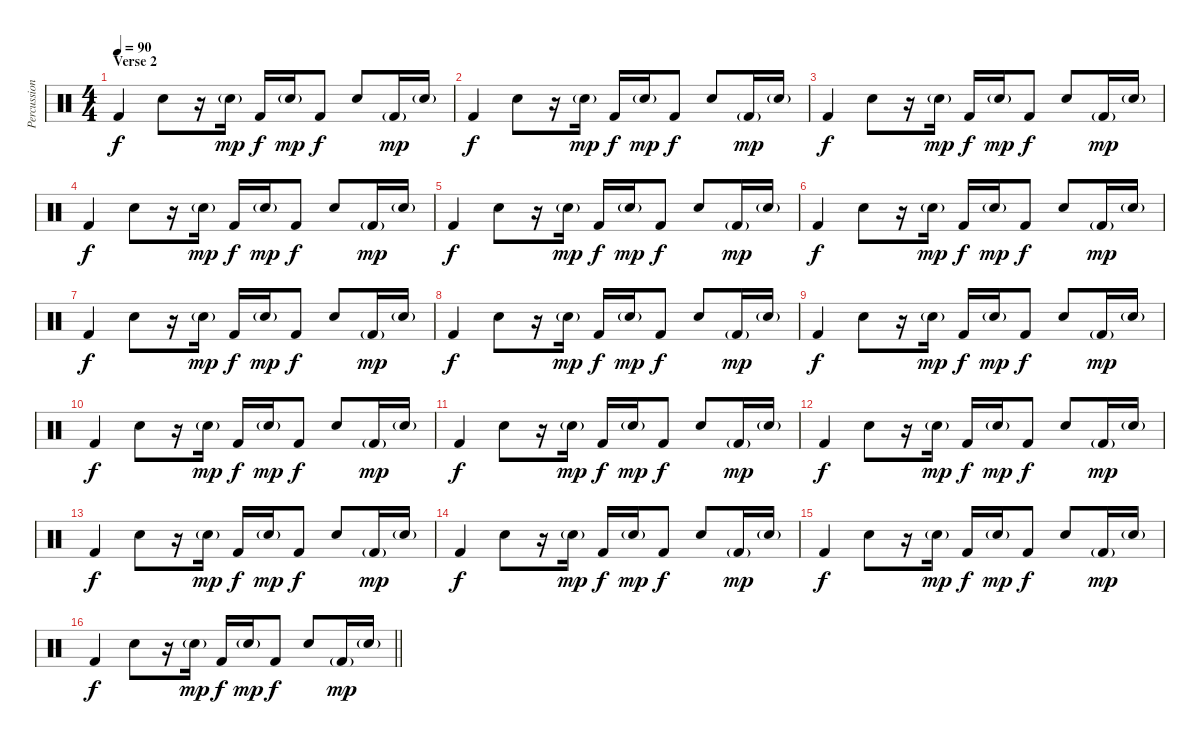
\track ("Percussion" "Percussion") {instrument percussion}
\staff {score}
\articulation defaults
\ts (4 4)
\section ("" "Verse 2")
\tempo 90
\clef neutral
\ks c "Kick (hit) 2".4{dy f} "Snare (hit) 2".8
r.16 "Snare (hit) 2"{g}.16{dy mp} "Kick (hit) 2".16{dy f} "Snare (hit) 2"{g}.16{dy mp} "Kick (hit) 2".8{dy f} "Snare (hit) 2".8 "Kick (hit) 2"{g}.16{dy mp} "Snare (hit) 2"{g}.16 |
"Kick (hit) 2".4{dy f} "Snare (hit) 2".8 r.16 "Snare (hit) 2"{g}.16{dy mp} "Kick (hit) 2".16{dy f} "Snare (hit) 2"{g}.16{dy mp} "Kick (hit) 2".8{dy f} "Snare (hit) 2".8 "Kick (hit) 2"{g}.16{dy mp} "Snare (hit) 2"{g}.16 |
"Kick (hit) 2".4{dy f} "Snare (hit) 2".8 r.16 "Snare (hit) 2"{g}.16{dy mp} "Kick (hit) 2".16{dy f} "Snare (hit) 2"{g}.16{dy mp} "Kick (hit) 2".8{dy f} "Snare (hit) 2".8 "Kick (hit) 2"{g}.16{dy mp} "Snare (hit) 2"{g}.16 |
"Kick (hit) 2".4{dy f} "Snare (hit) 2".8 r.16 "Snare (hit) 2"{g}.16{dy mp} "Kick (hit) 2".16{dy f} "Snare (hit) 2"{g}.16{dy mp} "Kick (hit) 2".8{dy f} "Snare (hit) 2".8 "Kick (hit) 2"{g}.16{dy mp} "Snare (hit) 2"{g}.16 |
"Kick (hit) 2".4{dy f} "Snare (hit) 2".8 r.16 "Snare (hit) 2"{g}.16{dy mp} "Kick (hit) 2".16{dy f} "Snare (hit) 2"{g}.16{dy mp} "Kick (hit) 2".8{dy f} "Snare (hit) 2".8 "Kick (hit) 2"{g}.16{dy mp} "Snare (hit) 2"{g}.16 |
"Kick (hit) 2".4{dy f} "Snare (hit) 2".8 r.16 "Snare (hit) 2"{g}.16{dy mp} "Kick (hit) 2".16{dy f} "Snare (hit) 2"{g}.16{dy mp} "Kick (hit) 2".8{dy f} "Snare (hit) 2".8 "Kick (hit) 2"{g}.16{dy mp} "Snare (hit) 2"{g}.16 |
"Kick (hit) 2".4{dy f} "Snare (hit) 2".8 r.16 "Snare (hit) 2"{g}.16{dy mp} "Kick (hit) 2".16{dy f} "Snare (hit) 2"{g}.16{dy mp} "Kick (hit) 2".8{dy f} "Snare (hit) 2".8 "Kick (hit) 2"{g}.16{dy mp} "Snare (hit) 2"{g}.16 |
"Kick (hit) 2".4{dy f} "Snare (hit) 2".8 r.16 "Snare (hit) 2"{g}.16{dy mp} "Kick (hit) 2".16{dy f} "Snare (hit) 2"{g}.16{dy mp} "Kick (hit) 2".8{dy f} "Snare (hit) 2".8 "Kick (hit) 2"{g}.16{dy mp} "Snare (hit) 2"{g}.16 |
"Kick (hit) 2".4{dy f} "Snare (hit) 2".8 r.16 "Snare (hit) 2"{g}.16{dy mp} "Kick (hit) 2".16{dy f} "Snare (hit) 2"{g}.16{dy mp} "Kick (hit) 2".8{dy f} "Snare (hit) 2".8 "Kick (hit) 2"{g}.16{dy mp} "Snare (hit) 2"{g}.16 |
"Kick (hit) 2".4{dy f} "Snare (hit) 2".8 r.16 "Snare (hit) 2"{g}.16{dy mp} "Kick (hit) 2".16{dy f} "Snare (hit) 2"{g}.16{dy mp} "Kick (hit) 2".8{dy f} "Snare (hit) 2".8 "Kick (hit) 2"{g}.16{dy mp} "Snare (hit) 2"{g}.16 |
"Kick (hit) 2".4{dy f} "Snare (hit) 2".8 r.16 "Snare (hit) 2"{g}.16{dy mp} "Kick (hit) 2".16{dy f} "Snare (hit) 2"{g}.16{dy mp} "Kick (hit) 2".8{dy f} "Snare (hit) 2".8 "Kick (hit) 2"{g}.16{dy mp} "Snare (hit) 2"{g}.16 |
"Kick (hit) 2".4{dy f} "Snare (hit) 2".8 r.16 "Snare (hit) 2"{g}.16{dy mp} "Kick (hit) 2".16{dy f} "Snare (hit) 2"{g}.16{dy mp} "Kick (hit) 2".8{dy f} "Snare (hit) 2".8 "Kick (hit) 2"{g}.16{dy mp} "Snare (hit) 2"{g}.16 |
"Kick (hit) 2".4{dy f} "Snare (hit) 2".8 r.16 "Snare (hit) 2"{g}.16{dy mp} "Kick (hit) 2".16{dy f} "Snare (hit) 2"{g}.16{dy mp} "Kick (hit) 2".8{dy f} "Snare (hit) 2".8 "Kick (hit) 2"{g}.16{dy mp} "Snare (hit) 2"{g}.16 |
"Kick (hit) 2".4{dy f} "Snare (hit) 2".8 r.16 "Snare (hit) 2"{g}.16{dy mp} "Kick (hit) 2".16{dy f} "Snare (hit) 2"{g}.16{dy mp} "Kick (hit) 2".8{dy f} "Snare (hit) 2".8 "Kick (hit) 2"{g}.16{dy mp} "Snare (hit) 2"{g}.16 |
"Kick (hit) 2".4{dy f} "Snare (hit) 2".8 r.16 "Snare (hit) 2"{g}.16{dy mp} "Kick (hit) 2".16{dy f} "Snare (hit) 2"{g}.16{dy mp} "Kick (hit) 2".8{dy f} "Snare (hit) 2".8 "Kick (hit) 2"{g}.16{dy mp} "Snare (hit) 2"{g}.16 |
\barLineRight lightlight "Kick (hit) 2".4{dy f} "Snare (hit) 2".8
r.16 "Snare (hit) 2"{g}.16{dy mp} "Kick (hit) 2".16{dy f} "Snare (hit) 2"{g}.16{dy mp} "Kick (hit) 2".8{dy f} "Snare (hit) 2".8 "Kick (hit) 2"{g}.16{dy mp} "Snare (hit) 2"{g}.16
